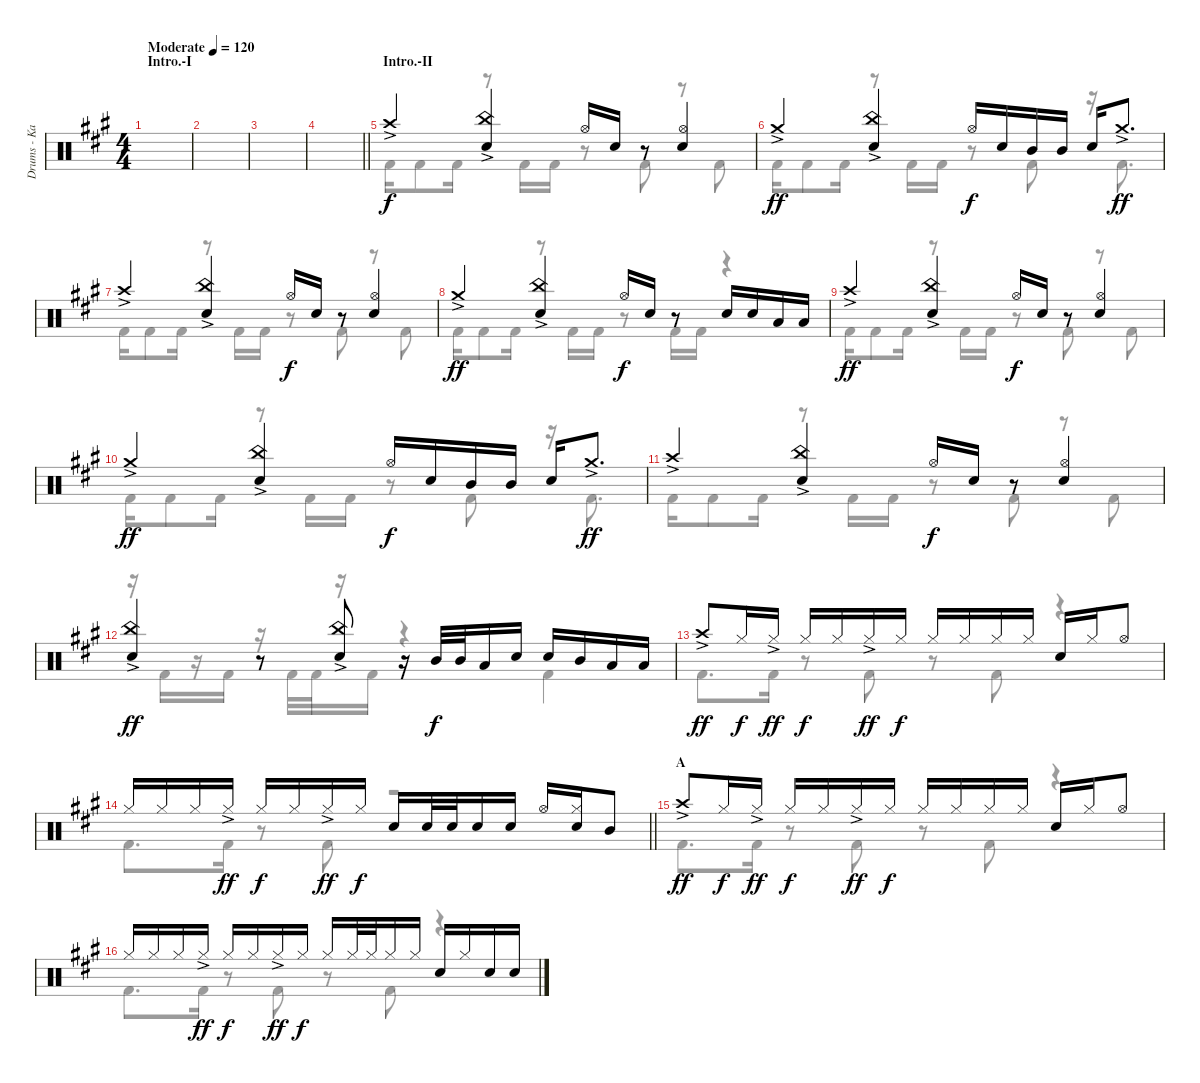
\track ("Drums - Kai" "Drums - Ka") {instrument percussion}
\staff {score}
\articulation defaults
\voice
\ts (4 4)
\section ("" "Intro.-I")
\tempo (120 "Moderate")
\clef neutral
\ks a
|
|
|
\barLineRight lightlight
|
\section ("" "Intro.-II")
"Crash high (hit)"{ac}.4 ("China (hit)"{ac} "Snare (hit) 2").4 "Hi-Hat (open)".16{dy f} "Snare (hit) 2".16 r.8 ("Hi-Hat (open)" "Snare (hit) 2").4 |
"Crash medium (hit)"{ac}.4{dy ff} ("China (hit)"{ac} "Snare (hit) 2").4 "Hi-Hat (open)".16{dy f} "Snare (hit) 2".16 "Mid Tom (hit)".16 "Mid Tom (hit)".16 "Snare (hit) 2".16 "Crash medium (hit)"{ac}.8{d dy ff} |
"Crash high (hit)"{ac}.4 ("China (hit)"{ac} "Snare (hit) 2").4 "Hi-Hat (open)".16{dy f} "Snare (hit) 2".16 r.8 ("Hi-Hat (open)" "Snare (hit) 2").4 |
"Crash medium (hit)"{ac}.4{dy ff} ("China (hit)"{ac} "Snare (hit) 2").4 "Hi-Hat (open)".16{dy f} "Snare (hit) 2".16 r.8 "Snare (hit) 2".16 "Snare (hit) 2".16 "Low Tom (hit)".16 "Low Tom (hit)".16 |
"Crash high (hit)"{ac}.4{dy ff} ("China (hit)"{ac} "Snare (hit) 2").4 "Hi-Hat (open)".16{dy f} "Snare (hit) 2".16 r.8 ("Hi-Hat (open)" "Snare (hit) 2").4 |
"Crash medium (hit)"{ac}.4{dy ff} ("China (hit)"{ac} "Snare (hit) 2").4 "Hi-Hat (open)".16{dy f} "Snare (hit) 2".16 "Mid Tom (hit)".16 "Mid Tom (hit)".16 "Snare (hit) 2".16 "Crash medium (hit)"{ac}.8{d dy ff} |
"Crash high (hit)"{ac}.4 ("China (hit)"{ac} "Snare (hit) 2").4 "Hi-Hat (open)".16{dy f} "Snare (hit) 2".16 r.8 ("Hi-Hat (open)" "Snare (hit) 2").4 |
("China (hit)"{ac} "Snare (hit) 2").4{dy ff} r.8 ("China (hit)"{ac} "Snare (hit) 2").8 r.16 "Mid Tom (hit)".32{dy f} "Mid Tom (hit)".32 "Low Tom (hit)".16 "Snare (hit) 2".16 "Snare (hit) 2".16 "Mid Tom (hit)".16 "Low Tom (hit)".16 "Low Tom (hit)".16 |
"Crash high (hit)"{ac}.8{dy ff} "Hi-Hat (closed)".16{dy f} "Hi-Hat (closed)"{ac}.16{dy ff} "Hi-Hat (closed)".16{dy f} "Hi-Hat (closed)".16 "Hi-Hat (closed)"{ac}.16{dy ff} "Hi-Hat (closed)".16{dy f} "Hi-Hat (closed)".16 "Hi-Hat (closed)".16 "Hi-Hat (closed)".16 "Hi-Hat (closed)".16 "Snare (hit) 2".16 "Hi-Hat (closed)".16 "Hi-Hat (open)".8 |
\barLineRight lightlight "Hi-Hat (closed)".16 "Hi-Hat (closed)".16 "Hi-Hat (closed)".16 "Hi-Hat (closed)"{ac}.16{dy ff} "Hi-Hat (closed)".16{dy f} "Hi-Hat (closed)".16 "Hi-Hat (closed)"{ac}.16{dy ff} "Hi-Hat (closed)".16{dy f} "Snare (hit) 2".16 "Snare (hit) 2".32 "Snare (hit) 2".32 "Snare (hit) 2".16 "Snare (hit) 2".16 "Hi-Hat (open)".16
("Hi-Hat (closed)" "Snare (hit) 2").16 "Mid Tom (hit)".8 |
\section ("" "A")
"Crash high (hit)"{ac}.8{dy ff} "Hi-Hat (closed)".16{dy f} "Hi-Hat (closed)"{ac}.16{dy ff} "Hi-Hat (closed)".16{dy f} "Hi-Hat (closed)".16 "Hi-Hat (closed)"{ac}.16{dy ff} "Hi-Hat (closed)".16{dy f} "Hi-Hat (closed)".16 "Hi-Hat (closed)".16 "Hi-Hat (closed)".16 "Hi-Hat (closed)".16 "Snare (hit) 2".16 "Hi-Hat (closed)".16 "Hi-Hat (open)".8 |
"Hi-Hat (closed)".16 "Hi-Hat (closed)".16 "Hi-Hat (closed)".16 "Hi-Hat (closed)"{ac}.16{dy ff} "Hi-Hat (closed)".16{dy f} "Hi-Hat (closed)".16 "Hi-Hat (closed)"{ac}.16{dy ff} "Hi-Hat (closed)".16{dy f} "Hi-Hat (closed)".16 "Hi-Hat (closed)".32 "Hi-Hat (closed)".32 "Hi-Hat (closed)".16 "Hi-Hat (closed)".16 "Snare (hit) 2".16 "Hi-Hat (closed)".16 "Snare (hit) 2".16 "Snare (hit) 2".16
\voice
\clef neutral
\ottava regular
\simile none
\ks a
|
|
|
\barLineRight lightlight
|
"Kick (hit) 2".16 "Kick (hit) 2".8 "Kick (hit) 2".16 r.8 "Kick (hit) 2".16 "Kick (hit) 2".16 r.8 "Kick (hit) 2".8 r.8 "Kick (hit) 2".8 |
"Kick (hit) 2".16 "Kick (hit) 2".8 "Kick (hit) 2".16 r.8 "Kick (hit) 2".16 "Kick (hit) 2".16 r.8 "Kick (hit) 2".8 r.16 "Kick (hit) 2".8{d} |
"Kick (hit) 2".16 "Kick (hit) 2".8 "Kick (hit) 2".16 r.8 "Kick (hit) 2".16 "Kick (hit) 2".16 r.8 "Kick (hit) 2".8 r.8 "Kick (hit) 2".8 |
"Kick (hit) 2".16 "Kick (hit) 2".8 "Kick (hit) 2".16 r.8 "Kick (hit) 2".16 "Kick (hit) 2".16 r.8 "Kick (hit) 2".16 "Kick (hit) 2".16 r.4 |
"Kick (hit) 2".16 "Kick (hit) 2".8 "Kick (hit) 2".16 r.8 "Kick (hit) 2".16 "Kick (hit) 2".16 r.8 "Kick (hit) 2".8 r.8 "Kick (hit) 2".8 |
"Kick (hit) 2".16 "Kick (hit) 2".8 "Kick (hit) 2".16 r.8 "Kick (hit) 2".16 "Kick (hit) 2".16 r.8 "Kick (hit) 2".8 r.16 "Kick (hit) 2".8{d} |
"Kick (hit) 2".16 "Kick (hit) 2".8 "Kick (hit) 2".16 r.8 "Kick (hit) 2".16 "Kick (hit) 2".16 r.8 "Kick (hit) 2".8 r.8 "Kick (hit) 2".8 |
r.16 "Kick (hit) 2".16 r.16 "Kick (hit) 2".16 r.16 "Kick (hit) 2".32 "Kick (hit) 2".32 r.16 "Kick (hit) 2".16 r.4 "Kick (hit) 2".4 |
"Kick (hit) 2".8{d} "Kick (hit) 2".16 r.8 "Kick (hit) 2".8 r.8 "Kick (hit) 2".8 r.4 |
\barLineRight lightlight "Kick (hit) 2".8{d} "Kick (hit) 2".16
r.8 "Kick (hit) 2".8 r.2 |
"Kick (hit) 2".8{d} "Kick (hit) 2".16 r.8 "Kick (hit) 2".8 r.8 "Kick (hit) 2".8 r.4 |
"Kick (hit) 2".8{d} "Kick (hit) 2".16 r.8 "Kick (hit) 2".8 r.8 "Kick (hit) 2".8 r.4
